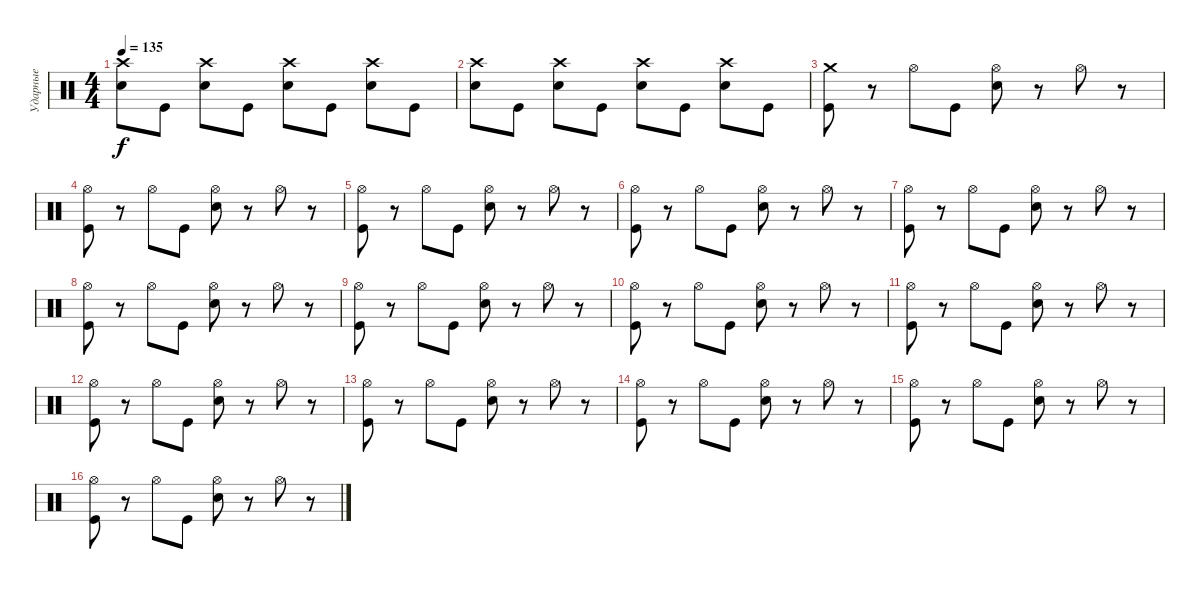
\track ("Ударные" "Ударные") {instrument percussion}
\staff {score}
\articulation defaults
\ts (4 4)
\tempo 135
\clef neutral
\ks c
("Crash high (hit)" "Electric Snare (hit)").8{dy f} "Kick (hit)".8 ("Crash high (hit)" "Electric Snare (hit)").8 "Kick (hit)".8 ("Crash high (hit)" "Electric Snare (hit)").8 "Kick (hit)".8 ("Crash high (hit)" "Electric Snare (hit)").8 "Kick (hit)".8 |
("Crash high (hit)" "Electric Snare (hit)").8 "Kick (hit)".8 ("Crash high (hit)" "Electric Snare (hit)").8 "Kick (hit)".8 ("Crash high (hit)" "Electric Snare (hit)").8 "Kick (hit)".8 ("Crash high (hit)" "Electric Snare (hit)").8 "Kick (hit)".8 |
("Crash medium (hit)" "Kick (hit)").8 r.8 "Hi-Hat (open)".8 "Kick (hit)".8 ("Hi-Hat (open)" "Electric Snare (hit)").8 r.8 "Hi-Hat (open)".8 r.8 |
("Hi-Hat (open)" "Kick (hit)").8 r.8 "Hi-Hat (open)".8 "Kick (hit)".8 ("Hi-Hat (open)" "Electric Snare (hit)").8 r.8 "Hi-Hat (open)".8 r.8 |
("Hi-Hat (open)" "Kick (hit)").8 r.8 "Hi-Hat (open)".8 "Kick (hit)".8 ("Hi-Hat (open)" "Electric Snare (hit)").8 r.8 "Hi-Hat (open)".8 r.8 |
("Hi-Hat (open)" "Kick (hit)").8 r.8 "Hi-Hat (open)".8 "Kick (hit)".8 ("Hi-Hat (open)" "Electric Snare (hit)").8 r.8 "Hi-Hat (open)".8 r.8 |
("Hi-Hat (open)" "Kick (hit)").8 r.8 "Hi-Hat (open)".8 "Kick (hit)".8 ("Hi-Hat (open)" "Electric Snare (hit)").8 r.8 "Hi-Hat (open)".8 r.8 |
("Hi-Hat (open)" "Kick (hit)").8 r.8 "Hi-Hat (open)".8 "Kick (hit)".8 ("Hi-Hat (open)" "Electric Snare (hit)").8 r.8 "Hi-Hat (open)".8 r.8 |
("Hi-Hat (open)" "Kick (hit)").8 r.8 "Hi-Hat (open)".8 "Kick (hit)".8 ("Hi-Hat (open)" "Electric Snare (hit)").8 r.8 "Hi-Hat (open)".8 r.8 |
("Hi-Hat (open)" "Kick (hit)").8 r.8 "Hi-Hat (open)".8 "Kick (hit)".8 ("Hi-Hat (open)" "Electric Snare (hit)").8 r.8 "Hi-Hat (open)".8 r.8 |
("Hi-Hat (open)" "Kick (hit)").8 r.8 "Hi-Hat (open)".8 "Kick (hit)".8 ("Hi-Hat (open)" "Electric Snare (hit)").8 r.8 "Hi-Hat (open)".8 r.8 |
("Hi-Hat (open)" "Kick (hit)").8 r.8 "Hi-Hat (open)".8 "Kick (hit)".8 ("Hi-Hat (open)" "Electric Snare (hit)").8 r.8 "Hi-Hat (open)".8 r.8 |
("Hi-Hat (open)" "Kick (hit)").8 r.8 "Hi-Hat (open)".8 "Kick (hit)".8 ("Hi-Hat (open)" "Electric Snare (hit)").8 r.8 "Hi-Hat (open)".8 r.8 |
("Hi-Hat (open)" "Kick (hit)").8 r.8 "Hi-Hat (open)".8 "Kick (hit)".8 ("Hi-Hat (open)" "Electric Snare (hit)").8 r.8 "Hi-Hat (open)".8 r.8 |
("Hi-Hat (open)" "Kick (hit)").8 r.8 "Hi-Hat (open)".8 "Kick (hit)".8 ("Hi-Hat (open)" "Electric Snare (hit)").8 r.8 "Hi-Hat (open)".8 r.8 |
("Hi-Hat (open)" "Kick (hit)").8 r.8 "Hi-Hat (open)".8 "Kick (hit)".8 ("Hi-Hat (open)" "Electric Snare (hit)").8 r.8 "Hi-Hat (open)".8 r.8
